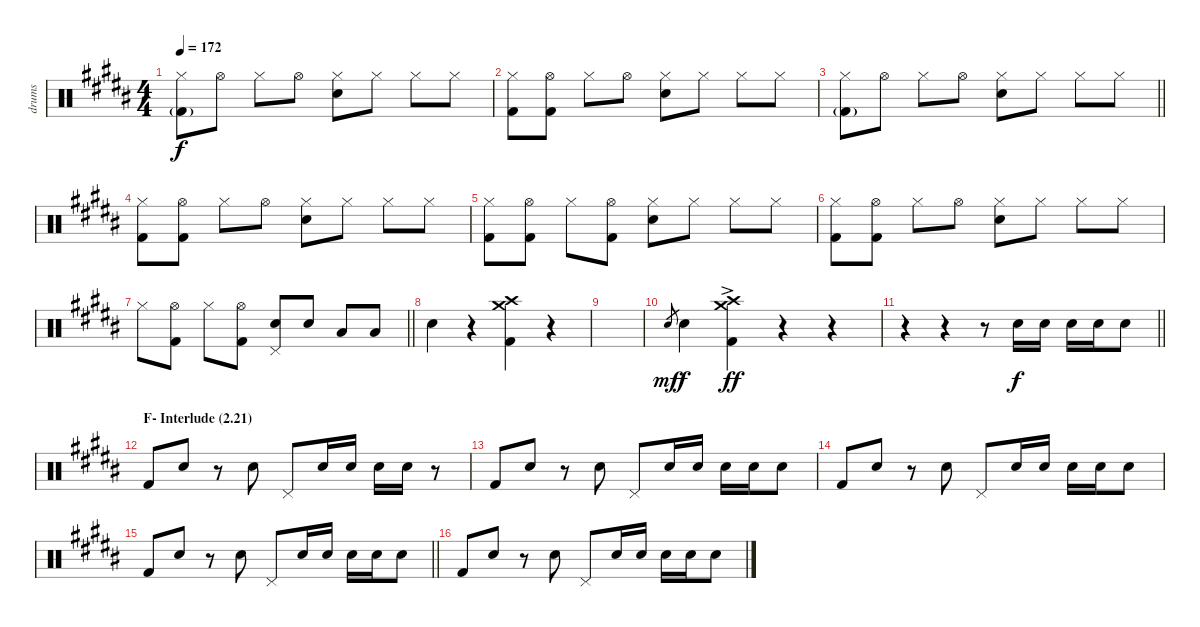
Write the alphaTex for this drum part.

\track ("drums" "drums") {instrument percussion}
\staff {score}
\articulation defaults
\ts (4 4)
\tempo 172
\clef neutral
\ks g#minor
("Hi-Hat (closed)" "Kick (hit) 2"{g}).8{dy f} "Hi-Hat (open)".8 "Hi-Hat (closed)".8 "Hi-Hat (open)".8 ("Hi-Hat (closed)" "Electric Snare (hit)").8 "Hi-Hat (closed)".8 "Hi-Hat (closed)".8 "Hi-Hat (closed)".8 |
\ks b
("Hi-Hat (closed)" "Kick (hit) 2").8 ("Hi-Hat (open)" "Kick (hit) 2").8 "Hi-Hat (closed)".8 "Hi-Hat (open)".8 ("Hi-Hat (closed)" "Electric Snare (hit)").8 "Hi-Hat (closed)".8 "Hi-Hat (closed)".8 "Hi-Hat (closed)".8 |
\barLineRight lightlight
\ks g#minor
("Hi-Hat (closed)" "Kick (hit) 2"{g}).8 "Hi-Hat (open)".8 "Hi-Hat (closed)".8 "Hi-Hat (open)".8 ("Hi-Hat (closed)" "Electric Snare (hit)").8 "Hi-Hat (closed)".8 "Hi-Hat (closed)".8 "Hi-Hat (closed)".8 |
\ks b
("Hi-Hat (closed)" "Kick (hit) 2").8 ("Hi-Hat (open)" "Kick (hit) 2").8 "Hi-Hat (closed)".8 "Hi-Hat (open)".8 ("Hi-Hat (closed)" "Electric Snare (hit)").8 "Hi-Hat (closed)".8 "Hi-Hat (closed)".8 "Hi-Hat (closed)".8 |
\ks g#minor
("Hi-Hat (closed)" "Kick (hit) 2").8 ("Hi-Hat (open)" "Kick (hit) 2").8 "Hi-Hat (closed)".8 ("Hi-Hat (open)" "Kick (hit) 2").8 ("Hi-Hat (closed)" "Electric Snare (hit)").8 "Hi-Hat (closed)".8 "Hi-Hat (closed)".8 "Hi-Hat (closed)".8 |
("Hi-Hat (closed)" "Kick (hit) 2").8 ("Hi-Hat (open)" "Kick (hit) 2").8 "Hi-Hat (closed)".8 "Hi-Hat (open)".8 ("Hi-Hat (closed)" "Electric Snare (hit)").8 "Hi-Hat (closed)".8 "Hi-Hat (closed)".8 "Hi-Hat (closed)".8 |
\barLineRight lightlight "Hi-Hat (closed)".8
("Hi-Hat (open)" "Kick (hit) 2").8 "Hi-Hat (closed)".8 ("Hi-Hat (open)" "Kick (hit) 2").8 ("Pedal Hi-Hat (hit)" "Electric Snare (hit)").8 "Electric Snare (hit)".8 "Low Tom (hit)".8 "Low Tom (hit)".8 |
\ks b "Electric Snare (hit)".4
r.4 ("Crash high (hit)" "Crash medium (hit)" "Kick (hit) 2").4 r.4 |
\ks g#minor
|
"Electric Snare (hit)".8{gr dy mf} "Electric Snare (hit)".4{dy f} ("Crash high (hit)"{ac} "Crash medium (hit)"{ac} "Kick (hit) 2"{ac}).4{dy ff} r.4 r.4 |
\barLineRight lightlight
r.4 r.4 r.8 "Electric Snare (hit)".16{dy f} "Electric Snare (hit)".16 "Electric Snare (hit)".16 "Electric Snare (hit)".16 "Electric Snare (hit)".8 |
\section ("" "F- Interlude (2.21)")
\ks b "Kick (hit) 2".8 "Electric Snare (hit)".8
r.8 "Electric Snare (hit)".8 "Pedal Hi-Hat (hit)".8 "Electric Snare (hit)".16 "Electric Snare (hit)".16 "Electric Snare (hit)".16 "Electric Snare (hit)".16 r.8 |
\ks g#minor "Kick (hit) 2".8 "Electric Snare (hit)".8
r.8 "Electric Snare (hit)".8 "Pedal Hi-Hat (hit)".8 "Electric Snare (hit)".16 "Electric Snare (hit)".16 "Electric Snare (hit)".16 "Electric Snare (hit)".16 "Electric Snare (hit)".8 |
"Kick (hit) 2".8 "Electric Snare (hit)".8 r.8 "Electric Snare (hit)".8 "Pedal Hi-Hat (hit)".8 "Electric Snare (hit)".16 "Electric Snare (hit)".16 "Electric Snare (hit)".16 "Electric Snare (hit)".16 "Electric Snare (hit)".8 |
\barLineRight lightlight "Kick (hit) 2".8 "Electric Snare (hit)".8
r.8 "Electric Snare (hit)".8 "Pedal Hi-Hat (hit)".8 "Electric Snare (hit)".16 "Electric Snare (hit)".16 "Electric Snare (hit)".16 "Electric Snare (hit)".16 "Electric Snare (hit)".8 |
\ks b "Kick (hit) 2".8 "Electric Snare (hit)".8
r.8 "Electric Snare (hit)".8 "Pedal Hi-Hat (hit)".8 "Electric Snare (hit)".16 "Electric Snare (hit)".16 "Electric Snare (hit)".16 "Electric Snare (hit)".16 "Electric Snare (hit)".8
